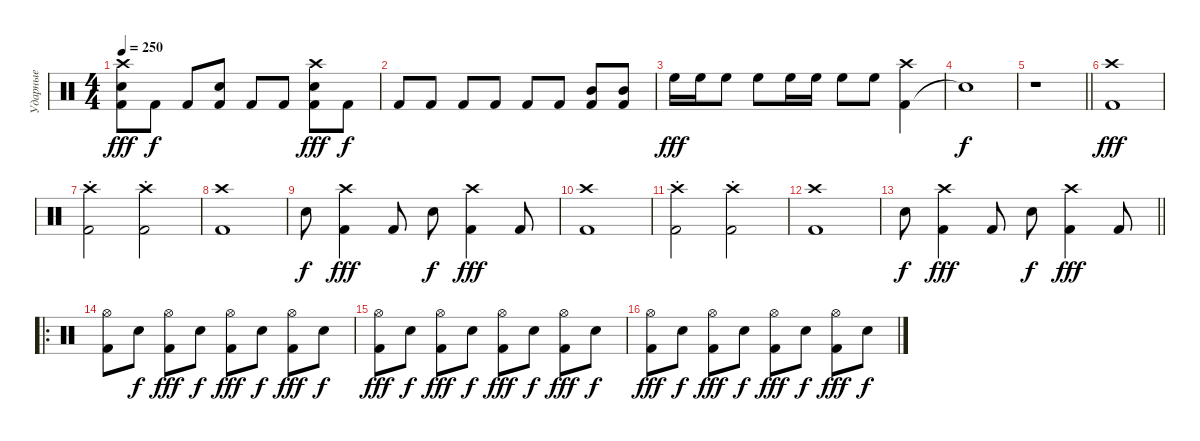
\track ("Ударные" "Ударные") {instrument percussion}
\staff {score}
\articulation defaults
\ts (4 4)
\tempo 250
\clef neutral
\ks c
("Kick (hit) 2" "Snare (hit) 2" "Crash high (hit)").8{dy fff} "Kick (hit) 2".8{dy f} "Kick (hit) 2".8 ("Kick (hit) 2" "Snare (hit) 2").8 "Kick (hit) 2".8 "Kick (hit) 2".8 ("Kick (hit) 2" "Snare (hit) 2" "Crash high (hit)").8{dy fff} "Kick (hit) 2".8{dy f} |
"Kick (hit) 2".8 "Kick (hit) 2".8 "Kick (hit) 2".8 "Kick (hit) 2".8 "Kick (hit) 2".8 "Kick (hit) 2".8 ("Kick (hit) 2" "Mid Tom (hit)").8 ("Kick (hit) 2" "Mid Tom (hit)").8 |
"High Floor Tom (hit)".16{dy fff} "High Floor Tom (hit)".16 "High Floor Tom (hit)".8 "High Floor Tom (hit)".8 "High Floor Tom (hit)".16 "High Floor Tom (hit)".16 "High Floor Tom (hit)".8 "High Floor Tom (hit)".8 ("Kick (hit) 2" "Crash high (hit)").4 |
"Snare (hit)"{t}.1{dy f} |
\barLineRight lightlight
r.1 |
("Kick (hit) 2" "Crash high (hit)").1{dy fff} |
("Kick (hit) 2"{st} "Crash high (hit)"{st}).2 ("Kick (hit) 2"{st} "Crash high (hit)"{st}).2 |
("Kick (hit) 2" "Crash high (hit)").1 |
"Snare (hit) 2".8{dy f} ("Kick (hit) 2" "Crash high (hit)").4{dy fff} "Kick (hit) 2".8 "Snare (hit) 2".8{dy f} ("Kick (hit) 2" "Crash high (hit)").4{dy fff} "Kick (hit) 2".8 |
("Kick (hit) 2" "Crash high (hit)").1 |
("Kick (hit) 2"{st} "Crash high (hit)"{st}).2 ("Kick (hit) 2"{st} "Crash high (hit)"{st}).2 |
("Kick (hit) 2" "Crash high (hit)").1 |
\barLineRight lightlight "Snare (hit) 2".8{dy f}
("Kick (hit) 2" "Crash high (hit)").4{dy fff} "Kick (hit) 2".8 "Snare (hit) 2".8{dy f} ("Kick (hit) 2" "Crash high (hit)").4{dy fff} "Kick (hit) 2".8 |
\ro
("Kick (hit) 2" "Hi-Hat (open)").8 "Snare (hit) 2".8{dy f} ("Kick (hit) 2" "Hi-Hat (open)").8{dy fff} "Snare (hit) 2".8{dy f} ("Kick (hit) 2" "Hi-Hat (open)").8{dy fff} "Snare (hit) 2".8{dy f} ("Kick (hit) 2" "Hi-Hat (open)").8{dy fff} "Snare (hit) 2".8{dy f} |
("Kick (hit) 2" "Hi-Hat (open)").8{dy fff} "Snare (hit) 2".8{dy f} ("Kick (hit) 2" "Hi-Hat (open)").8{dy fff} "Snare (hit) 2".8{dy f} ("Kick (hit) 2" "Hi-Hat (open)").8{dy fff} "Snare (hit) 2".8{dy f} ("Kick (hit) 2" "Hi-Hat (open)").8{dy fff} "Snare (hit) 2".8{dy f} |
("Kick (hit) 2" "Hi-Hat (open)").8{dy fff} "Snare (hit) 2".8{dy f} ("Kick (hit) 2" "Hi-Hat (open)").8{dy fff} "Snare (hit) 2".8{dy f} ("Kick (hit) 2" "Hi-Hat (open)").8{dy fff} "Snare (hit) 2".8{dy f} ("Kick (hit) 2" "Hi-Hat (open)").8{dy fff} "Snare (hit) 2".8{dy f}
